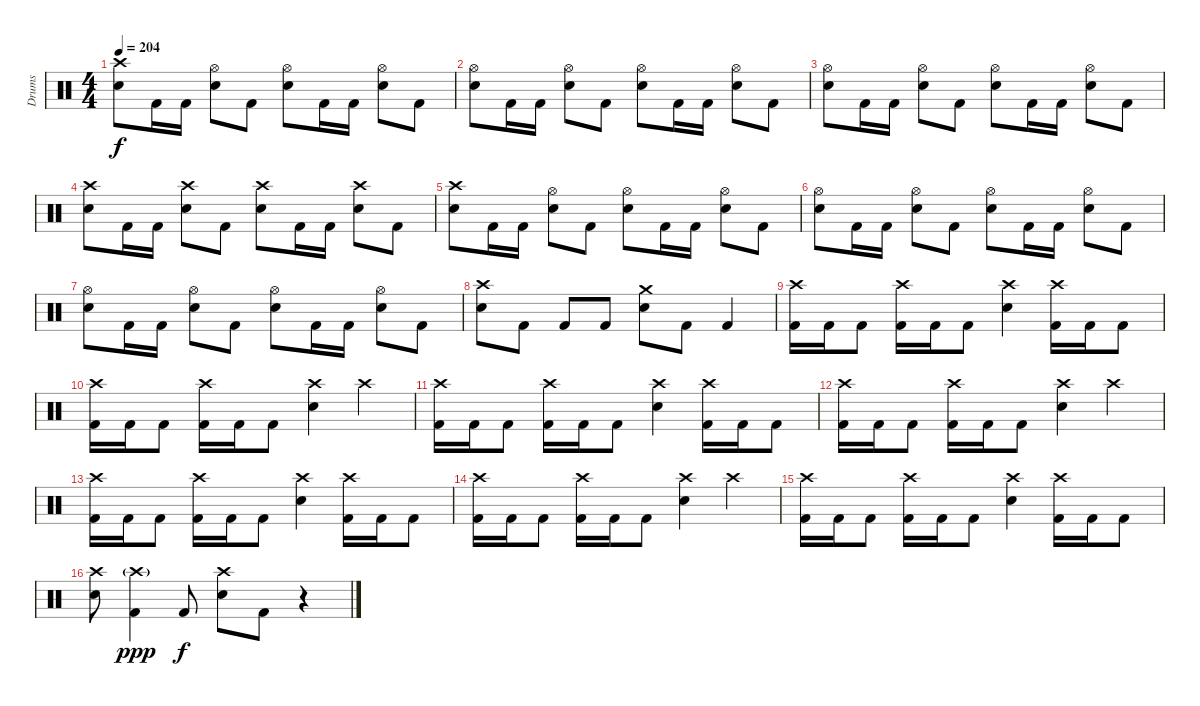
\track ("Drums" "Drums") {instrument percussion}
\staff {score}
\articulation defaults
\ts (4 4)
\tempo 204
\clef neutral
\ks c
("Crash high (hit)" "Electric Snare (hit)").8{dy f} "Kick (hit) 2".16 "Kick (hit) 2".16 ("Hi-Hat (open)" "Electric Snare (hit)").8 "Kick (hit) 2".8 ("Hi-Hat (open)" "Electric Snare (hit)").8 "Kick (hit) 2".16 "Kick (hit) 2".16 ("Hi-Hat (open)" "Electric Snare (hit)").8 "Kick (hit) 2".8 |
("Hi-Hat (open)" "Electric Snare (hit)").8 "Kick (hit) 2".16 "Kick (hit) 2".16 ("Hi-Hat (open)" "Electric Snare (hit)").8 "Kick (hit) 2".8 ("Hi-Hat (open)" "Electric Snare (hit)").8 "Kick (hit) 2".16 "Kick (hit) 2".16 ("Hi-Hat (open)" "Electric Snare (hit)").8 "Kick (hit) 2".8 |
("Hi-Hat (open)" "Electric Snare (hit)").8 "Kick (hit) 2".16 "Kick (hit) 2".16 ("Hi-Hat (open)" "Electric Snare (hit)").8 "Kick (hit) 2".8 ("Hi-Hat (open)" "Electric Snare (hit)").8 "Kick (hit) 2".16 "Kick (hit) 2".16 ("Hi-Hat (open)" "Electric Snare (hit)").8 "Kick (hit) 2".8 |
("Crash high (hit)" "Electric Snare (hit)").8 "Kick (hit) 2".16 "Kick (hit) 2".16 ("Crash high (hit)" "Electric Snare (hit)").8 "Kick (hit) 2".8 ("Crash high (hit)" "Electric Snare (hit)").8 "Kick (hit) 2".16 "Kick (hit) 2".16 ("Crash high (hit)" "Electric Snare (hit)").8 "Kick (hit) 2".8 |
("Crash high (hit)" "Electric Snare (hit)").8 "Kick (hit) 2".16 "Kick (hit) 2".16 ("Hi-Hat (open)" "Electric Snare (hit)").8 "Kick (hit) 2".8 ("Hi-Hat (open)" "Electric Snare (hit)").8 "Kick (hit) 2".16 "Kick (hit) 2".16 ("Hi-Hat (open)" "Electric Snare (hit)").8 "Kick (hit) 2".8 |
("Hi-Hat (open)" "Electric Snare (hit)").8 "Kick (hit) 2".16 "Kick (hit) 2".16 ("Hi-Hat (open)" "Electric Snare (hit)").8 "Kick (hit) 2".8 ("Hi-Hat (open)" "Electric Snare (hit)").8 "Kick (hit) 2".16 "Kick (hit) 2".16 ("Hi-Hat (open)" "Electric Snare (hit)").8 "Kick (hit) 2".8 |
("Hi-Hat (open)" "Electric Snare (hit)").8 "Kick (hit) 2".16 "Kick (hit) 2".16 ("Hi-Hat (open)" "Electric Snare (hit)").8 "Kick (hit) 2".8 ("Hi-Hat (open)" "Electric Snare (hit)").8 "Kick (hit) 2".16 "Kick (hit) 2".16 ("Hi-Hat (open)" "Electric Snare (hit)").8 "Kick (hit) 2".8 |
("Crash high (hit)" "Electric Snare (hit)").8 "Kick (hit) 2".8 "Kick (hit) 2".8 "Kick (hit) 2".8 ("Crash medium (hit)" "Electric Snare (hit)").8 "Kick (hit) 2".8 "Kick (hit) 2".4 |
("Crash high (hit)" "Kick (hit) 2").16 "Kick (hit) 2".16 "Kick (hit) 2".8 ("Crash high (hit)" "Kick (hit) 2").16 "Kick (hit) 2".16 "Kick (hit) 2".8 ("Crash high (hit)" "Electric Snare (hit)").4 ("Crash high (hit)" "Kick (hit) 2").16 "Kick (hit) 2".16 "Kick (hit) 2".8 |
("Crash high (hit)" "Kick (hit) 2").16 "Kick (hit) 2".16 "Kick (hit) 2".8 ("Crash high (hit)" "Kick (hit) 2").16 "Kick (hit) 2".16 "Kick (hit) 2".8 ("Crash high (hit)" "Electric Snare (hit)").4 "Crash high (hit)".4 |
("Crash high (hit)" "Kick (hit) 2").16 "Kick (hit) 2".16 "Kick (hit) 2".8 ("Crash high (hit)" "Kick (hit) 2").16 "Kick (hit) 2".16 "Kick (hit) 2".8 ("Crash high (hit)" "Electric Snare (hit)").4 ("Crash high (hit)" "Kick (hit) 2").16 "Kick (hit) 2".16 "Kick (hit) 2".8 |
("Crash high (hit)" "Kick (hit) 2").16 "Kick (hit) 2".16 "Kick (hit) 2".8 ("Crash high (hit)" "Kick (hit) 2").16 "Kick (hit) 2".16 "Kick (hit) 2".8 ("Crash high (hit)" "Electric Snare (hit)").4 "Crash high (hit)".4 |
("Crash high (hit)" "Kick (hit) 2").16 "Kick (hit) 2".16 "Kick (hit) 2".8 ("Crash high (hit)" "Kick (hit) 2").16 "Kick (hit) 2".16 "Kick (hit) 2".8 ("Crash high (hit)" "Electric Snare (hit)").4 ("Crash high (hit)" "Kick (hit) 2").16 "Kick (hit) 2".16 "Kick (hit) 2".8 |
("Crash high (hit)" "Kick (hit) 2").16 "Kick (hit) 2".16 "Kick (hit) 2".8 ("Crash high (hit)" "Kick (hit) 2").16 "Kick (hit) 2".16 "Kick (hit) 2".8 ("Crash high (hit)" "Electric Snare (hit)").4 "Crash high (hit)".4 |
("Crash high (hit)" "Kick (hit) 2").16 "Kick (hit) 2".16 "Kick (hit) 2".8 ("Crash high (hit)" "Kick (hit) 2").16 "Kick (hit) 2".16 "Kick (hit) 2".8 ("Crash high (hit)" "Electric Snare (hit)").4 ("Crash high (hit)" "Kick (hit) 2").16 "Kick (hit) 2".16 "Kick (hit) 2".8 |
("Crash high (hit)" "Electric Snare (hit)").8 ("Crash high (hit)"{g} "Kick (hit) 2").4{dy ppp} "Kick (hit) 2".8{dy f} ("Crash high (hit)" "Electric Snare (hit)").8 "Kick (hit) 2".8 r.4
